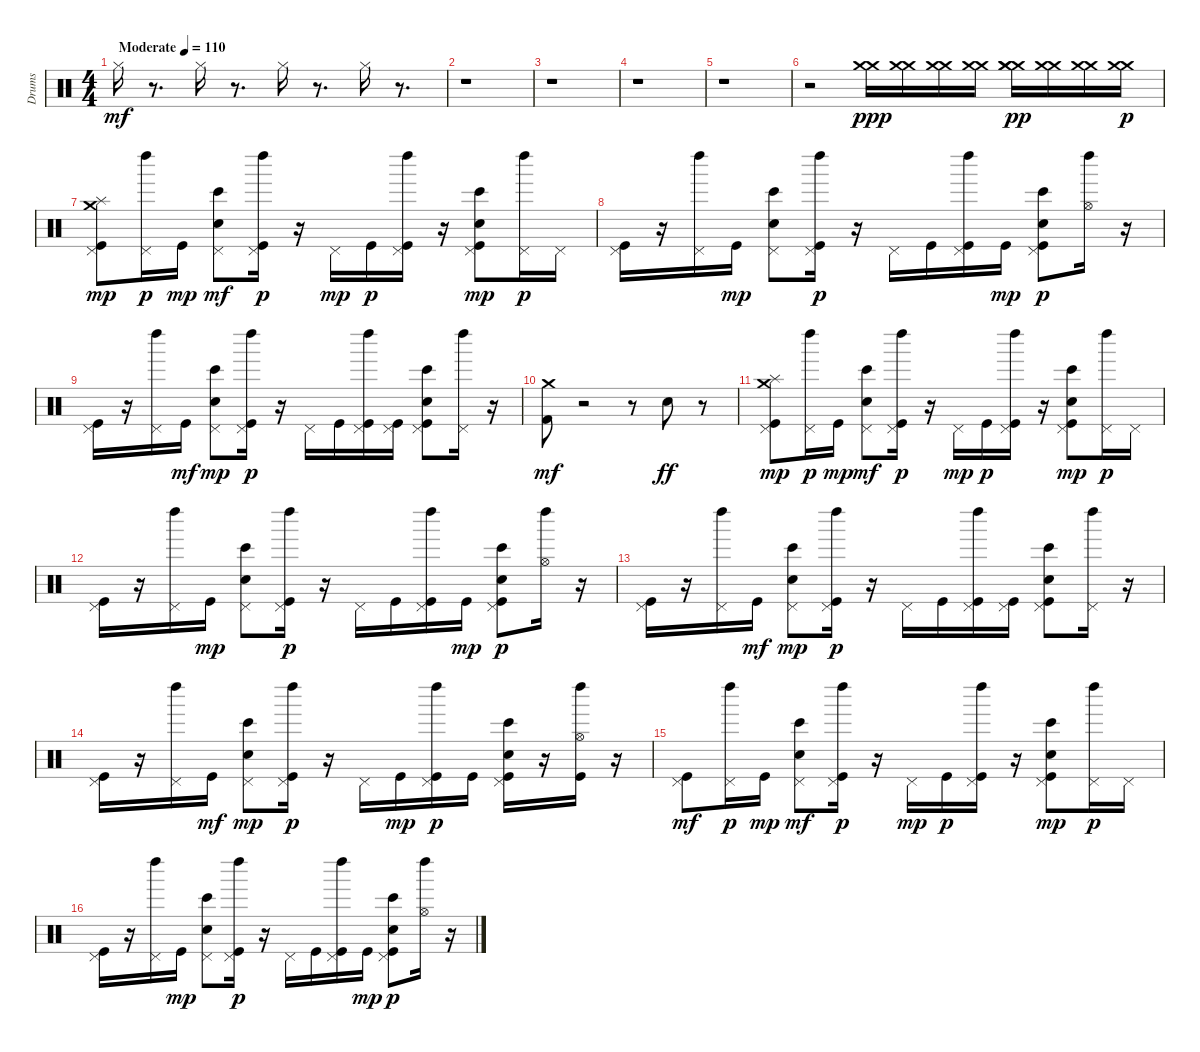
\track ("Drums" "Drums") {instrument percussion}
\staff {score}
\articulation defaults
\ts (4 4)
\tempo (110 "Moderate")
\clef neutral
\ks c "Hi-Hat (closed)".16{dy mf}
r.8{d} "Hi-Hat (closed)".16 r.8{d} "Hi-Hat (closed)".16 r.8{d} "Hi-Hat (closed)".16 r.8{d} |
r.1 |
r.1 |
r.1 |
r.1 |
r.2 ("Crash medium (hit)" "Crash medium (hit)").16{dy ppp} ("Crash medium (hit)" "Crash medium (hit)").16 ("Crash medium (hit)" "Crash medium (hit)").16 ("Crash medium (hit)" "Crash medium (hit)").16 ("Crash medium (hit)" "Crash medium (hit)" "Crash medium (hit)").16{dy pp} ("Crash medium (hit)" "Crash medium (hit)").16 ("Crash medium (hit)" "Crash medium (hit)").16 ("Crash medium (hit)" "Crash medium (hit)").16{dy p} |
("Kick (hit)" "Pedal Hi-Hat (hit)" "Splash (hit)" "Crash medium (hit)").8{dy mp} ("Pedal Hi-Hat (hit)" "Left Maraca (hit)").16{dy p} "Kick (hit)".16{dy mp} ("Bongo High (hit)" "Electric Snare (hit)" "Pedal Hi-Hat (hit)").8{dy mf} ("Kick (hit)" "Pedal Hi-Hat (hit)" "Left Maraca (hit)").16{dy p} r.16 "Pedal Hi-Hat (hit)".16{dy mp} "Kick (hit)".16{dy p} ("Kick (hit)" "Pedal Hi-Hat (hit)" "Left Maraca (hit)").16 r.16 ("Bongo High (hit)" "Kick (hit)" "Electric Snare (hit)" "Pedal Hi-Hat (hit)").8{dy mp} ("Pedal Hi-Hat (hit)" "Left Maraca (hit)").16{dy p} "Pedal Hi-Hat (hit)".16 |
("Kick (hit)" "Pedal Hi-Hat (hit)").16 r.16 ("Pedal Hi-Hat (hit)" "Left Maraca (hit)").16 "Kick (hit)".16{dy mp} ("Bongo High (hit)" "Electric Snare (hit)" "Pedal Hi-Hat (hit)").8 ("Kick (hit)" "Pedal Hi-Hat (hit)" "Left Maraca (hit)").16{dy p} r.16 "Pedal Hi-Hat (hit)".16 "Kick (hit)".16 ("Kick (hit)" "Pedal Hi-Hat (hit)" "Left Maraca (hit)").16 "Kick (hit)".16{dy mp} ("Bongo High (hit)" "Kick (hit)" "Electric Snare (hit)" "Pedal Hi-Hat (hit)").8{dy p} ("Hi-Hat (open)" "Left Maraca (hit)").16 r.16 |
("Kick (hit)" "Pedal Hi-Hat (hit)").16 r.16 ("Pedal Hi-Hat (hit)" "Left Maraca (hit)").16 "Kick (hit)".16{dy mf} ("Bongo High (hit)" "Electric Snare (hit)" "Pedal Hi-Hat (hit)").8{dy mp} ("Kick (hit)" "Pedal Hi-Hat (hit)" "Left Maraca (hit)").16{dy p} r.16 "Pedal Hi-Hat (hit)".16 "Kick (hit)".16 ("Kick (hit)" "Pedal Hi-Hat (hit)" "Left Maraca (hit)").16 ("Kick (hit)" "Pedal Hi-Hat (hit)").16 ("Bongo High (hit)" "Kick (hit)" "Electric Snare (hit)" "Pedal Hi-Hat (hit)").8 ("Pedal Hi-Hat (hit)" "Left Maraca (hit)").16 r.16 |
("Kick (hit) 2" "Crash medium (hit)").8{dy mf} r.2 r.8 "Snare (hit) 2".8{dy ff} r.8 |
("Kick (hit)" "Pedal Hi-Hat (hit)" "Crash medium (hit)" "Splash (hit)").8{dy mp} ("Pedal Hi-Hat (hit)" "Left Maraca (hit)").16{dy p} "Kick (hit)".16{dy mp} ("Bongo High (hit)" "Electric Snare (hit)" "Pedal Hi-Hat (hit)").8{dy mf} ("Kick (hit)" "Pedal Hi-Hat (hit)" "Left Maraca (hit)").16{dy p} r.16 "Pedal Hi-Hat (hit)".16{dy mp} "Kick (hit)".16{dy p} ("Kick (hit)" "Pedal Hi-Hat (hit)" "Left Maraca (hit)").16 r.16 ("Bongo High (hit)" "Kick (hit)" "Electric Snare (hit)" "Pedal Hi-Hat (hit)").8{dy mp} ("Pedal Hi-Hat (hit)" "Left Maraca (hit)").16{dy p} "Pedal Hi-Hat (hit)".16 |
("Kick (hit)" "Pedal Hi-Hat (hit)").16 r.16 ("Pedal Hi-Hat (hit)" "Left Maraca (hit)").16 "Kick (hit)".16{dy mp} ("Bongo High (hit)" "Electric Snare (hit)" "Pedal Hi-Hat (hit)").8 ("Kick (hit)" "Pedal Hi-Hat (hit)" "Left Maraca (hit)").16{dy p} r.16 "Pedal Hi-Hat (hit)".16 "Kick (hit)".16 ("Kick (hit)" "Pedal Hi-Hat (hit)" "Left Maraca (hit)").16 "Kick (hit)".16{dy mp} ("Bongo High (hit)" "Kick (hit)" "Electric Snare (hit)" "Pedal Hi-Hat (hit)").8{dy p} ("Hi-Hat (open)" "Left Maraca (hit)").16 r.16 |
("Kick (hit)" "Pedal Hi-Hat (hit)").16 r.16 ("Pedal Hi-Hat (hit)" "Left Maraca (hit)").16 "Kick (hit)".16{dy mf} ("Bongo High (hit)" "Electric Snare (hit)" "Pedal Hi-Hat (hit)").8{dy mp} ("Kick (hit)" "Pedal Hi-Hat (hit)" "Left Maraca (hit)").16{dy p} r.16 "Pedal Hi-Hat (hit)".16 "Kick (hit)".16 ("Kick (hit)" "Pedal Hi-Hat (hit)" "Left Maraca (hit)").16 ("Kick (hit)" "Pedal Hi-Hat (hit)").16 ("Bongo High (hit)" "Kick (hit)" "Electric Snare (hit)" "Pedal Hi-Hat (hit)").8 ("Pedal Hi-Hat (hit)" "Left Maraca (hit)").16 r.16 |
("Kick (hit)" "Pedal Hi-Hat (hit)").16 r.16 ("Pedal Hi-Hat (hit)" "Left Maraca (hit)").16 "Kick (hit)".16{dy mf} ("Bongo High (hit)" "Electric Snare (hit)" "Pedal Hi-Hat (hit)").8{dy mp} ("Kick (hit)" "Pedal Hi-Hat (hit)" "Left Maraca (hit)").16{dy p} r.16 "Pedal Hi-Hat (hit)".16 "Kick (hit)".16{dy mp} ("Kick (hit)" "Pedal Hi-Hat (hit)" "Left Maraca (hit)").16{dy p} "Kick (hit)".16 ("Bongo High (hit)" "Kick (hit)" "Electric Snare (hit)" "Pedal Hi-Hat (hit)").16 r.16 ("Kick (hit)" "Hi-Hat (open)" "Left Maraca (hit)").16 r.16 |
("Kick (hit)" "Pedal Hi-Hat (hit)").8{dy mf} ("Pedal Hi-Hat (hit)" "Left Maraca (hit)").16{dy p} "Kick (hit)".16{dy mp} ("Bongo High (hit)" "Electric Snare (hit)" "Pedal Hi-Hat (hit)").8{dy mf} ("Kick (hit)" "Pedal Hi-Hat (hit)" "Left Maraca (hit)").16{dy p} r.16 "Pedal Hi-Hat (hit)".16{dy mp} "Kick (hit)".16{dy p} ("Kick (hit)" "Pedal Hi-Hat (hit)" "Left Maraca (hit)").16 r.16 ("Bongo High (hit)" "Kick (hit)" "Electric Snare (hit)" "Pedal Hi-Hat (hit)").8{dy mp} ("Pedal Hi-Hat (hit)" "Left Maraca (hit)").16{dy p} "Pedal Hi-Hat (hit)".16 |
("Kick (hit)" "Pedal Hi-Hat (hit)").16 r.16 ("Pedal Hi-Hat (hit)" "Left Maraca (hit)").16 "Kick (hit)".16{dy mp} ("Bongo High (hit)" "Electric Snare (hit)" "Pedal Hi-Hat (hit)").8 ("Kick (hit)" "Pedal Hi-Hat (hit)" "Left Maraca (hit)").16{dy p} r.16 "Pedal Hi-Hat (hit)".16 "Kick (hit)".16 ("Kick (hit)" "Pedal Hi-Hat (hit)" "Left Maraca (hit)").16 "Kick (hit)".16{dy mp} ("Bongo High (hit)" "Kick (hit)" "Electric Snare (hit)" "Pedal Hi-Hat (hit)").8{dy p} ("Hi-Hat (open)" "Left Maraca (hit)").16 r.16
